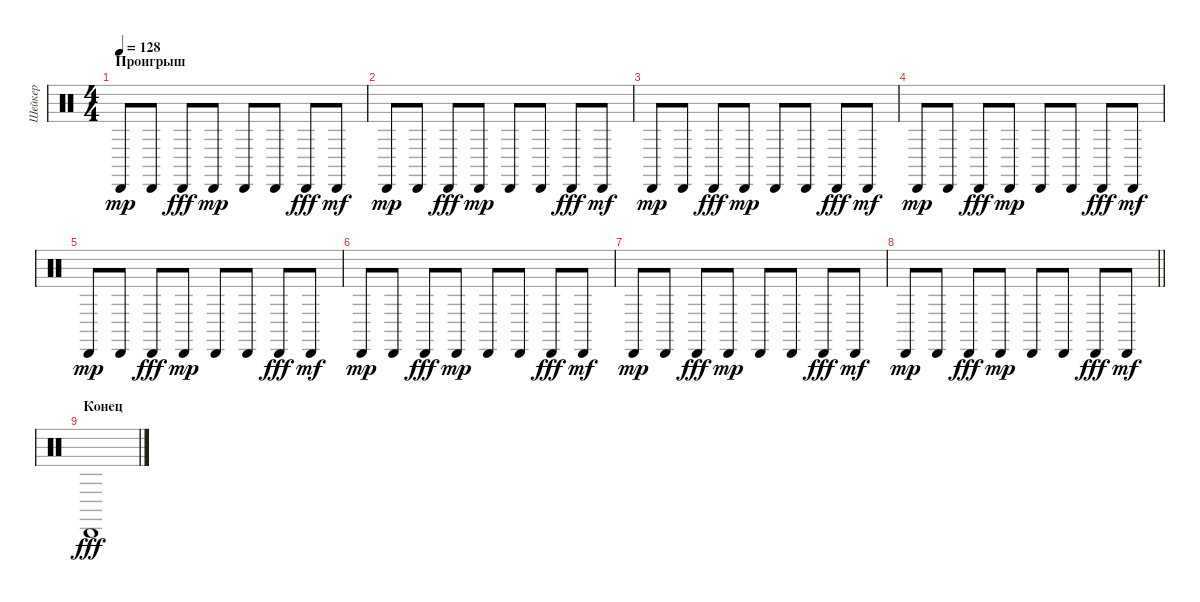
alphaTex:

\track ("Шейкер" "Шейкер") {instrument percussion}
\staff {score}
\articulation defaults
\ts (4 4)
\section ("" "Проигрыш")
\tempo 128
\clef neutral
\ks c "Cabasa (hit)".8{dy mp} "Cabasa (hit)".8 "Cabasa (hit)".8{dy fff} "Cabasa (hit)".8{dy mp} "Cabasa (hit)".8 "Cabasa (hit)".8 "Cabasa (hit)".8{dy fff} "Cabasa (hit)".8{dy mf}
|
"Cabasa (hit)".8{dy mp} "Cabasa (hit)".8 "Cabasa (hit)".8{dy fff} "Cabasa (hit)".8{dy mp} "Cabasa (hit)".8 "Cabasa (hit)".8 "Cabasa (hit)".8{dy fff} "Cabasa (hit)".8{dy mf} |
"Cabasa (hit)".8{dy mp} "Cabasa (hit)".8 "Cabasa (hit)".8{dy fff} "Cabasa (hit)".8{dy mp} "Cabasa (hit)".8 "Cabasa (hit)".8 "Cabasa (hit)".8{dy fff} "Cabasa (hit)".8{dy mf} |
"Cabasa (hit)".8{dy mp} "Cabasa (hit)".8 "Cabasa (hit)".8{dy fff} "Cabasa (hit)".8{dy mp} "Cabasa (hit)".8 "Cabasa (hit)".8 "Cabasa (hit)".8{dy fff} "Cabasa (hit)".8{dy mf} |
"Cabasa (hit)".8{dy mp} "Cabasa (hit)".8 "Cabasa (hit)".8{dy fff} "Cabasa (hit)".8{dy mp} "Cabasa (hit)".8 "Cabasa (hit)".8 "Cabasa (hit)".8{dy fff} "Cabasa (hit)".8{dy mf} |
"Cabasa (hit)".8{dy mp} "Cabasa (hit)".8 "Cabasa (hit)".8{dy fff} "Cabasa (hit)".8{dy mp} "Cabasa (hit)".8 "Cabasa (hit)".8 "Cabasa (hit)".8{dy fff} "Cabasa (hit)".8{dy mf} |
"Cabasa (hit)".8{dy mp} "Cabasa (hit)".8 "Cabasa (hit)".8{dy fff} "Cabasa (hit)".8{dy mp} "Cabasa (hit)".8 "Cabasa (hit)".8 "Cabasa (hit)".8{dy fff} "Cabasa (hit)".8{dy mf} |
\barLineRight lightlight "Cabasa (hit)".8{dy mp} "Cabasa (hit)".8 "Cabasa (hit)".8{dy fff} "Cabasa (hit)".8{dy mp} "Cabasa (hit)".8 "Cabasa (hit)".8 "Cabasa (hit)".8{dy fff} "Cabasa (hit)".8{dy mf}
|
\section ("" "Конец")
"Cabasa (hit)".1{dy fff}
